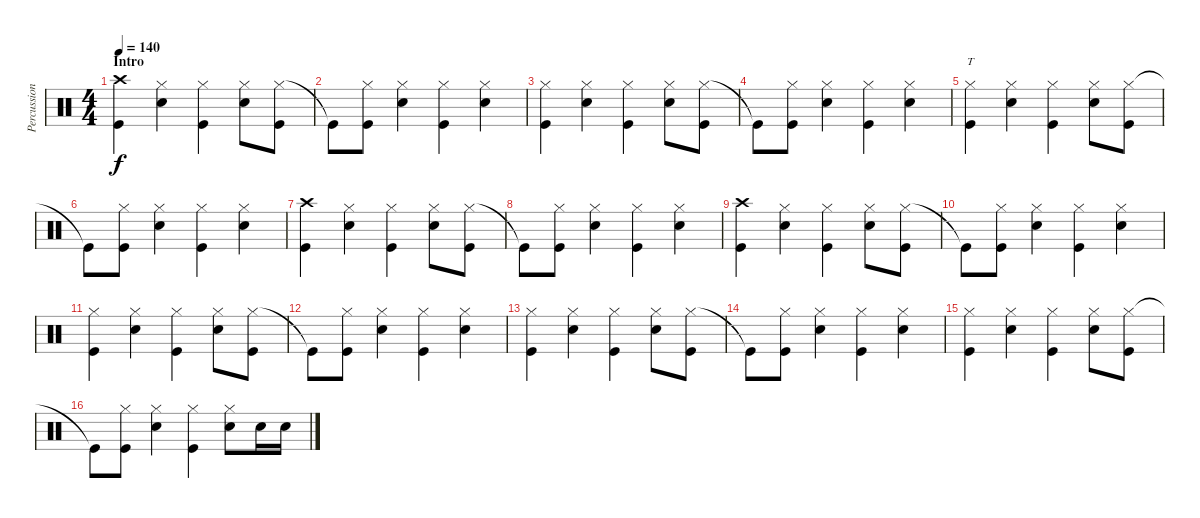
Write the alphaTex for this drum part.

\track ("Percussion" "Percussion") {instrument percussion}
\staff {score}
\articulation defaults
\ts (4 4)
\section ("" "Intro")
\tempo 140
\clef neutral
\ks c
("Crash high (hit)" "Kick (hit)").4{dy f} ("Hi-Hat (closed)" "Snare (hit) 2").4 ("Hi-Hat (closed)" "Kick (hit)").4 ("Hi-Hat (closed)" "Snare (hit) 2").8 ("Hi-Hat (closed)" "Kick (hit)").8 |
"Kick (hit)"{t}.8 ("Hi-Hat (closed)" "Kick (hit)").8 ("Hi-Hat (closed)" "Snare (hit) 2").4 ("Hi-Hat (closed)" "Kick (hit)").4 ("Hi-Hat (closed)" "Snare (hit) 2").4 |
("Hi-Hat (closed)" "Kick (hit)").4 ("Hi-Hat (closed)" "Snare (hit) 2").4 ("Hi-Hat (closed)" "Kick (hit)").4 ("Hi-Hat (closed)" "Snare (hit) 2").8 ("Hi-Hat (closed)" "Kick (hit)").8 |
"Kick (hit)"{t}.8 ("Hi-Hat (closed)" "Kick (hit)").8 ("Hi-Hat (closed)" "Snare (hit) 2").4 ("Hi-Hat (closed)" "Kick (hit)").4 ("Hi-Hat (closed)" "Snare (hit) 2").4 |
("Hi-Hat (closed)" "Kick (hit)").4{tt} ("Hi-Hat (closed)" "Snare (hit) 2").4 ("Hi-Hat (closed)" "Kick (hit)").4 ("Hi-Hat (closed)" "Snare (hit) 2").8 ("Hi-Hat (closed)" "Kick (hit)").8 |
"Kick (hit)"{t}.8 ("Hi-Hat (closed)" "Kick (hit)").8 ("Hi-Hat (closed)" "Snare (hit) 2").4 ("Hi-Hat (closed)" "Kick (hit)").4 ("Hi-Hat (closed)" "Snare (hit) 2").4 |
("Crash high (hit)" "Kick (hit)").4 ("Hi-Hat (closed)" "Snare (hit) 2").4 ("Hi-Hat (closed)" "Kick (hit)").4 ("Hi-Hat (closed)" "Snare (hit) 2").8 ("Hi-Hat (closed)" "Kick (hit)").8 |
"Kick (hit)"{t}.8 ("Hi-Hat (closed)" "Kick (hit)").8 ("Hi-Hat (closed)" "Snare (hit) 2").4 ("Hi-Hat (closed)" "Kick (hit)").4 ("Hi-Hat (closed)" "Snare (hit) 2").4 |
("Crash high (hit)" "Kick (hit)").4 ("Hi-Hat (closed)" "Snare (hit) 2").4 ("Hi-Hat (closed)" "Kick (hit)").4 ("Hi-Hat (closed)" "Snare (hit) 2").8 ("Hi-Hat (closed)" "Kick (hit)").8 |
"Kick (hit)"{t}.8 ("Hi-Hat (closed)" "Kick (hit)").8 ("Hi-Hat (closed)" "Snare (hit) 2").4 ("Hi-Hat (closed)" "Kick (hit)").4 ("Hi-Hat (closed)" "Snare (hit) 2").4 |
("Hi-Hat (closed)" "Kick (hit)").4 ("Hi-Hat (closed)" "Snare (hit) 2").4 ("Hi-Hat (closed)" "Kick (hit)").4 ("Hi-Hat (closed)" "Snare (hit) 2").8 ("Hi-Hat (closed)" "Kick (hit)").8 |
"Kick (hit)"{t}.8 ("Hi-Hat (closed)" "Kick (hit)").8 ("Hi-Hat (closed)" "Snare (hit) 2").4 ("Hi-Hat (closed)" "Kick (hit)").4 ("Hi-Hat (closed)" "Snare (hit) 2").4 |
("Hi-Hat (closed)" "Kick (hit)").4 ("Hi-Hat (closed)" "Snare (hit) 2").4 ("Hi-Hat (closed)" "Kick (hit)").4 ("Hi-Hat (closed)" "Snare (hit) 2").8 ("Hi-Hat (closed)" "Kick (hit)").8 |
"Kick (hit)"{t}.8 ("Hi-Hat (closed)" "Kick (hit)").8 ("Hi-Hat (closed)" "Snare (hit) 2").4 ("Hi-Hat (closed)" "Kick (hit)").4 ("Hi-Hat (closed)" "Snare (hit) 2").4 |
("Hi-Hat (closed)" "Kick (hit)").4 ("Hi-Hat (closed)" "Snare (hit) 2").4 ("Hi-Hat (closed)" "Kick (hit)").4 ("Hi-Hat (closed)" "Snare (hit) 2").8 ("Hi-Hat (closed)" "Kick (hit)").8 |
"Kick (hit)"{t}.8 ("Hi-Hat (closed)" "Kick (hit)").8 ("Hi-Hat (closed)" "Snare (hit) 2").4 ("Hi-Hat (closed)" "Kick (hit)").4 ("Hi-Hat (closed)" "Snare (hit) 2").8 "Snare (hit) 2".16 "Snare (hit) 2".16
